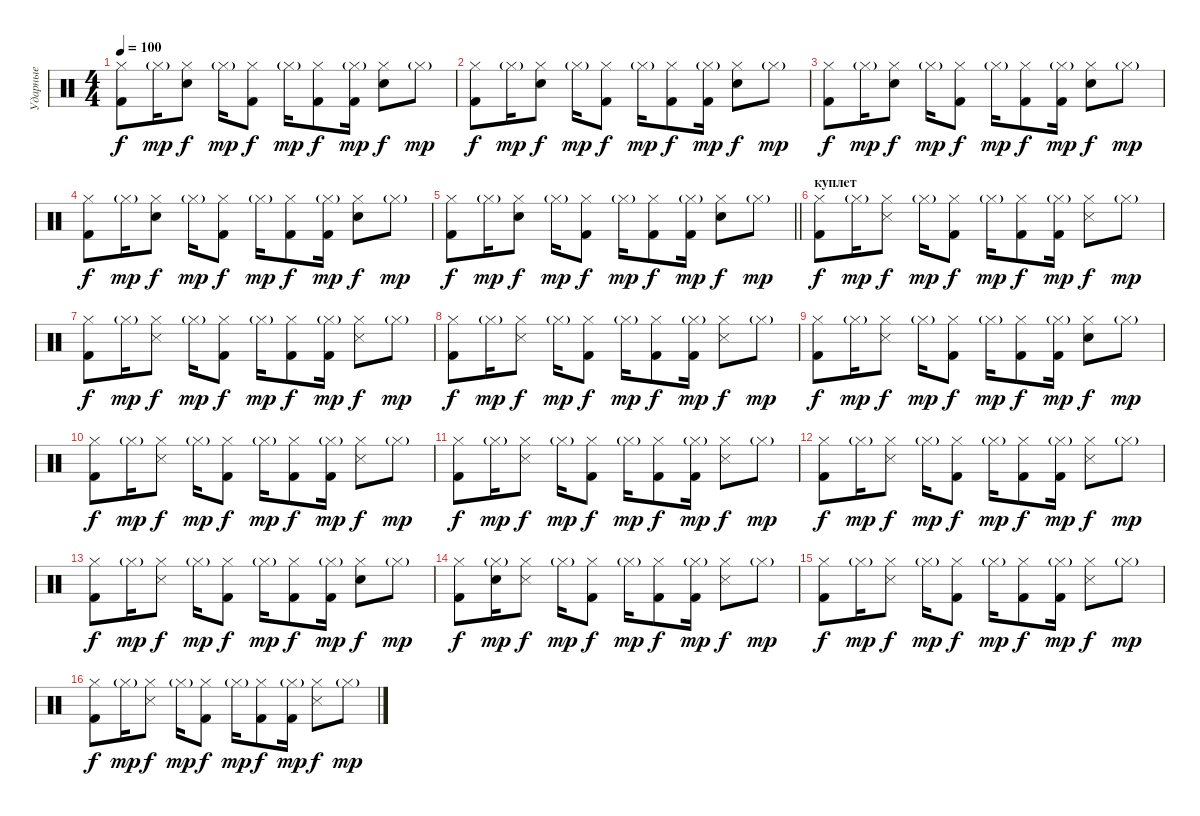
\track ("Ударные" "Ударные") {instrument percussion}
\staff {score}
\articulation defaults
\ts (4 4)
\tempo 100
\clef neutral
\ks c
("Kick (hit) 2" "Hi-Hat (closed)").8{dy f} "Hi-Hat (closed)"{g}.16{dy mp} ("Snare (hit) 2" "Hi-Hat (closed)").8{dy f} "Hi-Hat (closed)"{g}.16{dy mp} ("Kick (hit) 2" "Hi-Hat (closed)").8{dy f} "Hi-Hat (closed)"{g}.16{dy mp} ("Kick (hit) 2" "Hi-Hat (closed)").8{dy f} ("Kick (hit) 2" "Hi-Hat (closed)"{g}).16{dy mp} ("Snare (hit) 2" "Hi-Hat (closed)").8{dy f} "Hi-Hat (closed)"{g}.8{dy mp} |
("Kick (hit) 2" "Hi-Hat (closed)").8{dy f} "Hi-Hat (closed)"{g}.16{dy mp} ("Snare (hit) 2" "Hi-Hat (closed)").8{dy f} "Hi-Hat (closed)"{g}.16{dy mp} ("Kick (hit) 2" "Hi-Hat (closed)").8{dy f} "Hi-Hat (closed)"{g}.16{dy mp} ("Kick (hit) 2" "Hi-Hat (closed)").8{dy f} ("Kick (hit) 2" "Hi-Hat (closed)"{g}).16{dy mp} ("Snare (hit) 2" "Hi-Hat (closed)").8{dy f} "Hi-Hat (closed)"{g}.8{dy mp} |
("Kick (hit) 2" "Hi-Hat (closed)").8{dy f} "Hi-Hat (closed)"{g}.16{dy mp} ("Snare (hit) 2" "Hi-Hat (closed)").8{dy f} "Hi-Hat (closed)"{g}.16{dy mp} ("Kick (hit) 2" "Hi-Hat (closed)").8{dy f} "Hi-Hat (closed)"{g}.16{dy mp} ("Kick (hit) 2" "Hi-Hat (closed)").8{dy f} ("Kick (hit) 2" "Hi-Hat (closed)"{g}).16{dy mp} ("Snare (hit) 2" "Hi-Hat (closed)").8{dy f} "Hi-Hat (closed)"{g}.8{dy mp} |
("Kick (hit) 2" "Hi-Hat (closed)").8{dy f} "Hi-Hat (closed)"{g}.16{dy mp} ("Snare (hit) 2" "Hi-Hat (closed)").8{dy f} "Hi-Hat (closed)"{g}.16{dy mp} ("Kick (hit) 2" "Hi-Hat (closed)").8{dy f} "Hi-Hat (closed)"{g}.16{dy mp} ("Kick (hit) 2" "Hi-Hat (closed)").8{dy f} ("Kick (hit) 2" "Hi-Hat (closed)"{g}).16{dy mp} ("Snare (hit) 2" "Hi-Hat (closed)").8{dy f} "Hi-Hat (closed)"{g}.8{dy mp} |
\barLineRight lightlight
("Kick (hit) 2" "Hi-Hat (closed)").8{dy f} "Hi-Hat (closed)"{g}.16{dy mp} ("Snare (hit) 2" "Hi-Hat (closed)").8{dy f} "Hi-Hat (closed)"{g}.16{dy mp} ("Kick (hit) 2" "Hi-Hat (closed)").8{dy f} "Hi-Hat (closed)"{g}.16{dy mp} ("Kick (hit) 2" "Hi-Hat (closed)").8{dy f} ("Kick (hit) 2" "Hi-Hat (closed)"{g}).16{dy mp} ("Snare (hit) 2" "Hi-Hat (closed)").8{dy f} "Hi-Hat (closed)"{g}.8{dy mp} |
\section ("" "куплет")
("Kick (hit) 2" "Hi-Hat (closed)").8{dy f} "Hi-Hat (closed)"{g}.16{dy mp} ("Snare (side stick) 3" "Hi-Hat (closed)").8{dy f} "Hi-Hat (closed)"{g}.16{dy mp} ("Kick (hit) 2" "Hi-Hat (closed)").8{dy f} "Hi-Hat (closed)"{g}.16{dy mp} ("Kick (hit) 2" "Hi-Hat (closed)").8{dy f} ("Kick (hit) 2" "Hi-Hat (closed)"{g}).16{dy mp} ("Snare (side stick) 3" "Hi-Hat (closed)").8{dy f} "Hi-Hat (closed)"{g}.8{dy mp} |
("Kick (hit) 2" "Hi-Hat (closed)").8{dy f} "Hi-Hat (closed)"{g}.16{dy mp} ("Snare (side stick) 3" "Hi-Hat (closed)").8{dy f} "Hi-Hat (closed)"{g}.16{dy mp} ("Kick (hit) 2" "Hi-Hat (closed)").8{dy f} "Hi-Hat (closed)"{g}.16{dy mp} ("Kick (hit) 2" "Hi-Hat (closed)").8{dy f} ("Kick (hit) 2" "Hi-Hat (closed)"{g}).16{dy mp} ("Snare (side stick) 3" "Hi-Hat (closed)").8{dy f} "Hi-Hat (closed)"{g}.8{dy mp} |
("Kick (hit) 2" "Hi-Hat (closed)").8{dy f} "Hi-Hat (closed)"{g}.16{dy mp} ("Snare (side stick) 3" "Hi-Hat (closed)").8{dy f} "Hi-Hat (closed)"{g}.16{dy mp} ("Kick (hit) 2" "Hi-Hat (closed)").8{dy f} "Hi-Hat (closed)"{g}.16{dy mp} ("Kick (hit) 2" "Hi-Hat (closed)").8{dy f} ("Kick (hit) 2" "Hi-Hat (closed)"{g}).16{dy mp} ("Snare (side stick) 3" "Hi-Hat (closed)").8{dy f} "Hi-Hat (closed)"{g}.8{dy mp} |
("Kick (hit) 2" "Hi-Hat (closed)").8{dy f} "Hi-Hat (closed)"{g}.16{dy mp} ("Snare (side stick) 3" "Hi-Hat (closed)").8{dy f} "Hi-Hat (closed)"{g}.16{dy mp} ("Kick (hit) 2" "Hi-Hat (closed)").8{dy f} "Hi-Hat (closed)"{g}.16{dy mp} ("Kick (hit) 2" "Hi-Hat (closed)").8{dy f} ("Kick (hit) 2" "Hi-Hat (closed)"{g}).16{dy mp} ("Snare (hit) 2" "Hi-Hat (closed)").8{dy f} "Hi-Hat (closed)"{g}.8{dy mp} |
("Kick (hit) 2" "Hi-Hat (closed)").8{dy f} "Hi-Hat (closed)"{g}.16{dy mp} ("Snare (side stick) 3" "Hi-Hat (closed)").8{dy f} "Hi-Hat (closed)"{g}.16{dy mp} ("Kick (hit) 2" "Hi-Hat (closed)").8{dy f} "Hi-Hat (closed)"{g}.16{dy mp} ("Kick (hit) 2" "Hi-Hat (closed)").8{dy f} ("Kick (hit) 2" "Hi-Hat (closed)"{g}).16{dy mp} ("Snare (side stick) 3" "Hi-Hat (closed)").8{dy f} "Hi-Hat (closed)"{g}.8{dy mp} |
("Kick (hit) 2" "Hi-Hat (closed)").8{dy f} "Hi-Hat (closed)"{g}.16{dy mp} ("Snare (side stick) 3" "Hi-Hat (closed)").8{dy f} "Hi-Hat (closed)"{g}.16{dy mp} ("Kick (hit) 2" "Hi-Hat (closed)").8{dy f} "Hi-Hat (closed)"{g}.16{dy mp} ("Kick (hit) 2" "Hi-Hat (closed)").8{dy f} ("Kick (hit) 2" "Hi-Hat (closed)"{g}).16{dy mp} ("Snare (side stick) 3" "Hi-Hat (closed)").8{dy f} "Hi-Hat (closed)"{g}.8{dy mp} |
("Kick (hit) 2" "Hi-Hat (closed)").8{dy f} "Hi-Hat (closed)"{g}.16{dy mp} ("Snare (side stick) 3" "Hi-Hat (closed)").8{dy f} "Hi-Hat (closed)"{g}.16{dy mp} ("Kick (hit) 2" "Hi-Hat (closed)").8{dy f} "Hi-Hat (closed)"{g}.16{dy mp} ("Kick (hit) 2" "Hi-Hat (closed)").8{dy f} ("Kick (hit) 2" "Hi-Hat (closed)"{g}).16{dy mp} ("Snare (side stick) 3" "Hi-Hat (closed)").8{dy f} "Hi-Hat (closed)"{g}.8{dy mp} |
("Kick (hit) 2" "Hi-Hat (closed)").8{dy f} "Hi-Hat (closed)"{g}.16{dy mp} ("Snare (side stick) 3" "Hi-Hat (closed)").8{dy f} "Hi-Hat (closed)"{g}.16{dy mp} ("Kick (hit) 2" "Hi-Hat (closed)").8{dy f} "Hi-Hat (closed)"{g}.16{dy mp} ("Kick (hit) 2" "Hi-Hat (closed)").8{dy f} ("Kick (hit) 2" "Hi-Hat (closed)"{g}).16{dy mp} ("Snare (hit) 2" "Hi-Hat (closed)").8{dy f} "Hi-Hat (closed)"{g}.8{dy mp} |
("Kick (hit) 2" "Hi-Hat (closed)").8{dy f} ("Snare (hit) 2" "Hi-Hat (closed)"{g}).16{dy mp} ("Snare (side stick) 3" "Hi-Hat (closed)").8{dy f} "Hi-Hat (closed)"{g}.16{dy mp} ("Kick (hit) 2" "Hi-Hat (closed)").8{dy f} "Hi-Hat (closed)"{g}.16{dy mp} ("Kick (hit) 2" "Hi-Hat (closed)").8{dy f} ("Kick (hit) 2" "Hi-Hat (closed)"{g}).16{dy mp} ("Snare (side stick) 3" "Hi-Hat (closed)").8{dy f} "Hi-Hat (closed)"{g}.8{dy mp} |
("Kick (hit) 2" "Hi-Hat (closed)").8{dy f} "Hi-Hat (closed)"{g}.16{dy mp} ("Snare (side stick) 3" "Hi-Hat (closed)").8{dy f} "Hi-Hat (closed)"{g}.16{dy mp} ("Kick (hit) 2" "Hi-Hat (closed)").8{dy f} "Hi-Hat (closed)"{g}.16{dy mp} ("Kick (hit) 2" "Hi-Hat (closed)").8{dy f} ("Kick (hit) 2" "Hi-Hat (closed)"{g}).16{dy mp} ("Snare (side stick) 3" "Hi-Hat (closed)").8{dy f} "Hi-Hat (closed)"{g}.8{dy mp} |
("Kick (hit) 2" "Hi-Hat (closed)").8{dy f} "Hi-Hat (closed)"{g}.16{dy mp} ("Snare (side stick) 3" "Hi-Hat (closed)").8{dy f} "Hi-Hat (closed)"{g}.16{dy mp} ("Kick (hit) 2" "Hi-Hat (closed)").8{dy f} "Hi-Hat (closed)"{g}.16{dy mp} ("Kick (hit) 2" "Hi-Hat (closed)").8{dy f} ("Kick (hit) 2" "Hi-Hat (closed)"{g}).16{dy mp} ("Snare (side stick) 3" "Hi-Hat (closed)").8{dy f} "Hi-Hat (closed)"{g}.8{dy mp}
